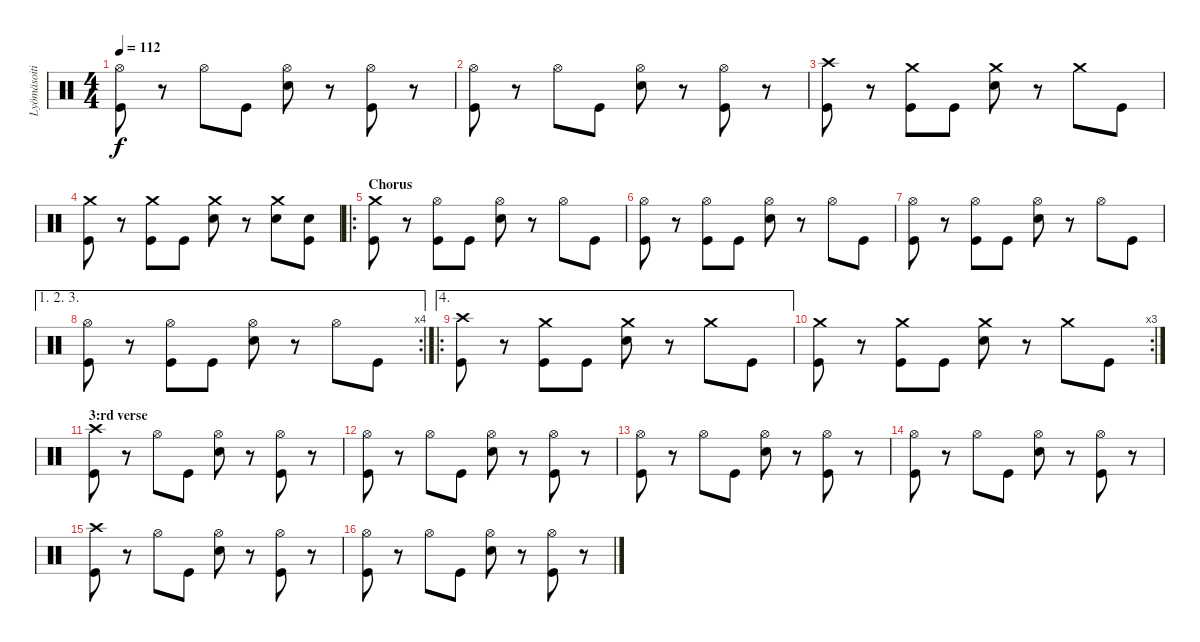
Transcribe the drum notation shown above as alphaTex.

\track ("Lyömäsoitin" "Lyömäsoiti") {instrument percussion}
\staff {score}
\articulation defaults
\ts (4 4)
\tempo 112
\clef neutral
\ks c
("Hi-Hat (open)" "Kick (hit)").8{dy f} r.8 "Hi-Hat (open)".8 "Kick (hit)".8 ("Hi-Hat (open)" "Snare (hit) 2").8 r.8 ("Hi-Hat (open)" "Kick (hit)").8 r.8 |
("Hi-Hat (open)" "Kick (hit)").8 r.8 "Hi-Hat (open)".8 "Kick (hit)".8 ("Hi-Hat (open)" "Snare (hit) 2").8 r.8 ("Hi-Hat (open)" "Kick (hit)").8 r.8 |
("Crash high (hit)" "Kick (hit)").8 r.8 ("Crash medium (hit)" "Kick (hit)").8 "Kick (hit)".8 ("Crash medium (hit)" "Snare (hit) 2").8 r.8 "Crash medium (hit)".8 "Kick (hit)".8 |
("Crash medium (hit)" "Kick (hit)").8 r.8 ("Crash medium (hit)" "Kick (hit)").8 "Kick (hit)".8 ("Crash medium (hit)" "Snare (hit) 2").8 r.8 ("Crash medium (hit)" "Snare (hit) 2").8 ("Snare (hit) 2" "Kick (hit)").8 |
\ro
\section ("" "Chorus")
("Crash medium (hit)" "Kick (hit)").8 r.8 ("Hi-Hat (open)" "Kick (hit)").8 "Kick (hit)".8 ("Hi-Hat (open)" "Snare (hit) 2").8 r.8 "Hi-Hat (open)".8 "Kick (hit)".8 |
("Hi-Hat (open)" "Kick (hit)").8 r.8 ("Hi-Hat (open)" "Kick (hit)").8 "Kick (hit)".8 ("Hi-Hat (open)" "Snare (hit) 2").8 r.8 "Hi-Hat (open)".8 "Kick (hit)".8 |
("Hi-Hat (open)" "Kick (hit)").8 r.8 ("Hi-Hat (open)" "Kick (hit)").8 "Kick (hit)".8 ("Hi-Hat (open)" "Snare (hit) 2").8 r.8 "Hi-Hat (open)".8 "Kick (hit)".8 |
\ae (1 2 3)
\rc 4
("Hi-Hat (open)" "Kick (hit)").8 r.8 ("Hi-Hat (open)" "Kick (hit)").8 "Kick (hit)".8 ("Hi-Hat (open)" "Snare (hit) 2").8 r.8 "Hi-Hat (open)".8 "Kick (hit)".8 |
\ae 4
\ro
("Crash high (hit)" "Kick (hit)").8 r.8 ("Crash medium (hit)" "Kick (hit)").8 "Kick (hit)".8 ("Crash medium (hit)" "Snare (hit) 2").8 r.8 "Crash medium (hit)".8 "Kick (hit)".8 |
\rc 3
("Crash medium (hit)" "Kick (hit)").8 r.8 ("Crash medium (hit)" "Kick (hit)").8 "Kick (hit)".8 ("Crash medium (hit)" "Snare (hit) 2").8 r.8 "Crash medium (hit)".8 "Kick (hit)".8 |
\section ("" "3:rd verse")
("Crash high (hit)" "Kick (hit)").8 r.8 "Hi-Hat (open)".8 "Kick (hit)".8 ("Hi-Hat (open)" "Snare (hit) 2").8 r.8 ("Hi-Hat (open)" "Kick (hit)").8 r.8 |
("Hi-Hat (open)" "Kick (hit)").8 r.8 "Hi-Hat (open)".8 "Kick (hit)".8 ("Hi-Hat (open)" "Snare (hit) 2").8 r.8 ("Hi-Hat (open)" "Kick (hit)").8 r.8 |
("Hi-Hat (open)" "Kick (hit)").8 r.8 "Hi-Hat (open)".8 "Kick (hit)".8 ("Hi-Hat (open)" "Snare (hit) 2").8 r.8 ("Hi-Hat (open)" "Kick (hit)").8 r.8 |
("Hi-Hat (open)" "Kick (hit)").8 r.8 "Hi-Hat (open)".8 "Kick (hit)".8 ("Hi-Hat (open)" "Snare (hit) 2").8 r.8 ("Hi-Hat (open)" "Kick (hit)").8 r.8 |
("Crash high (hit)" "Kick (hit)").8 r.8 "Hi-Hat (open)".8 "Kick (hit)".8 ("Hi-Hat (open)" "Snare (hit) 2").8 r.8 ("Hi-Hat (open)" "Kick (hit)").8 r.8 |
("Hi-Hat (open)" "Kick (hit)").8 r.8 "Hi-Hat (open)".8 "Kick (hit)".8 ("Hi-Hat (open)" "Snare (hit) 2").8 r.8 ("Hi-Hat (open)" "Kick (hit)").8 r.8
